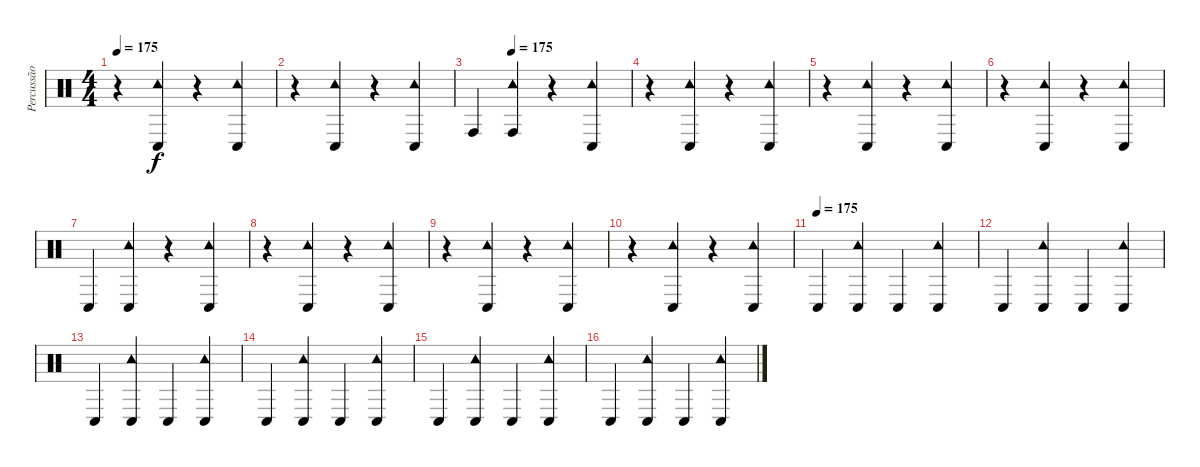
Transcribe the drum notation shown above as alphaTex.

\track ("Percussão" "Percussão") {instrument percussion}
\staff {score}
\articulation defaults
\ts (4 4)
\tempo 175
\clef neutral
\ks c
r.4{dy f} ("Conga low (hit)" "Tambourine (hit)").4 r.4 ("Conga low (hit)" "Tambourine (hit)").4 |
r.4 ("Conga low (hit)" "Tambourine (hit)").4 r.4 ("Conga low (hit)" "Tambourine (hit)").4 |
\tempo (175 0.25)
"Conga high (hit)".4 ("Conga high (hit)" "Tambourine (hit)").4 r.4 ("Conga low (hit)" "Tambourine (hit)").4 |
r.4 ("Conga low (hit)" "Tambourine (hit)").4 r.4 ("Conga low (hit)" "Tambourine (hit)").4 |
r.4 ("Conga low (hit)" "Tambourine (hit)").4 r.4 ("Conga low (hit)" "Tambourine (hit)").4 |
r.4 ("Conga low (hit)" "Tambourine (hit)").4 r.4 ("Conga low (hit)" "Tambourine (hit)").4 |
"Conga low (hit)".4 ("Conga low (hit)" "Tambourine (hit)").4 r.4 ("Conga low (hit)" "Tambourine (hit)").4 |
r.4 ("Conga low (hit)" "Tambourine (hit)").4 r.4 ("Conga low (hit)" "Tambourine (hit)").4 |
r.4 ("Conga low (hit)" "Tambourine (hit)").4 r.4 ("Conga low (hit)" "Tambourine (hit)").4 |
r.4 ("Conga low (hit)" "Tambourine (hit)").4 r.4 ("Conga low (hit)" "Tambourine (hit)").4 |
\tempo (175)
"Conga low (hit)".4 ("Conga low (hit)" "Tambourine (hit)").4 "Conga low (hit)".4 ("Conga low (hit)" "Tambourine (hit)").4 |
"Conga low (hit)".4 ("Conga low (hit)" "Tambourine (hit)").4 "Conga low (hit)".4 ("Conga low (hit)" "Tambourine (hit)").4 |
"Conga low (hit)".4 ("Conga low (hit)" "Tambourine (hit)").4 "Conga low (hit)".4 ("Conga low (hit)" "Tambourine (hit)").4 |
"Conga low (hit)".4 ("Conga low (hit)" "Tambourine (hit)").4 "Conga low (hit)".4 ("Conga low (hit)" "Tambourine (hit)").4 |
"Conga low (hit)".4 ("Conga low (hit)" "Tambourine (hit)").4 "Conga low (hit)".4 ("Conga low (hit)" "Tambourine (hit)").4 |
"Conga low (hit)".4 ("Conga low (hit)" "Tambourine (hit)").4 "Conga low (hit)".4 ("Conga low (hit)" "Tambourine (hit)").4
